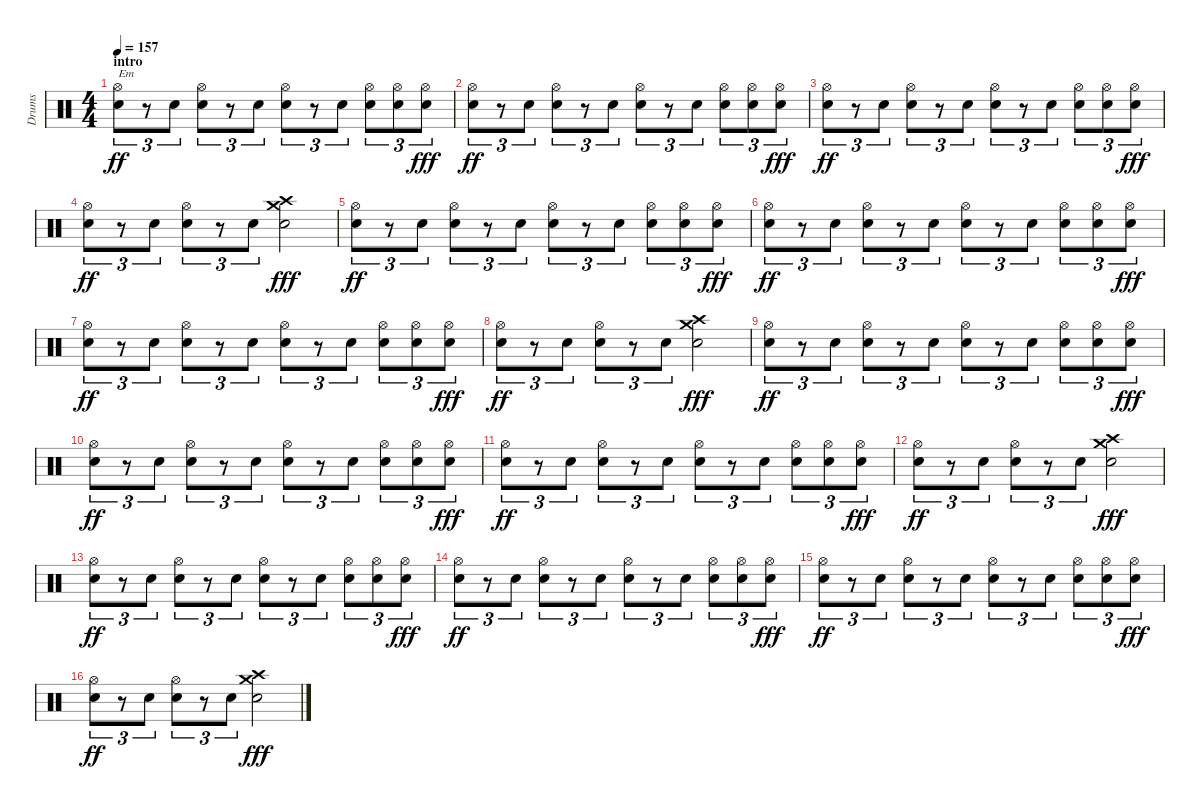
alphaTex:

\track ("Drums" "Drums") {instrument percussion}
\staff {score}
\articulation defaults
\ts (4 4)
\section ("" "intro")
\tempo 157
\clef neutral
\ks c
("Electric Snare (hit)" "Hi-Hat (open)").8{tu (3 2) txt "Em" dy ff} r.8{tu (3 2)} "Electric Snare (hit)".8{tu (3 2)} ("Electric Snare (hit)" "Hi-Hat (open)").8{tu (3 2)} r.8{tu (3 2)} "Electric Snare (hit)".8{tu (3 2)} ("Electric Snare (hit)" "Hi-Hat (open)").8{tu (3 2)} r.8{tu (3 2)} "Electric Snare (hit)".8{tu (3 2)} ("Electric Snare (hit)" "Hi-Hat (open)").8{tu (3 2)} ("Electric Snare (hit)" "Hi-Hat (open)").8{tu (3 2)} ("Electric Snare (hit)" "Hi-Hat (open)").8{tu (3 2) dy fff} |
("Electric Snare (hit)" "Hi-Hat (open)").8{tu (3 2) dy ff} r.8{tu (3 2)} "Electric Snare (hit)".8{tu (3 2)} ("Electric Snare (hit)" "Hi-Hat (open)").8{tu (3 2)} r.8{tu (3 2)} "Electric Snare (hit)".8{tu (3 2)} ("Electric Snare (hit)" "Hi-Hat (open)").8{tu (3 2)} r.8{tu (3 2)} "Electric Snare (hit)".8{tu (3 2)} ("Electric Snare (hit)" "Hi-Hat (open)").8{tu (3 2)} ("Electric Snare (hit)" "Hi-Hat (open)").8{tu (3 2)} ("Electric Snare (hit)" "Hi-Hat (open)").8{tu (3 2) dy fff} |
("Electric Snare (hit)" "Hi-Hat (open)").8{tu (3 2) dy ff} r.8{tu (3 2)} "Electric Snare (hit)".8{tu (3 2)} ("Electric Snare (hit)" "Hi-Hat (open)").8{tu (3 2)} r.8{tu (3 2)} "Electric Snare (hit)".8{tu (3 2)} ("Electric Snare (hit)" "Hi-Hat (open)").8{tu (3 2)} r.8{tu (3 2)} "Electric Snare (hit)".8{tu (3 2)} ("Electric Snare (hit)" "Hi-Hat (open)").8{tu (3 2)} ("Electric Snare (hit)" "Hi-Hat (open)").8{tu (3 2)} ("Electric Snare (hit)" "Hi-Hat (open)").8{tu (3 2) dy fff} |
("Electric Snare (hit)" "Hi-Hat (open)").8{tu (3 2) dy ff} r.8{tu (3 2)} "Electric Snare (hit)".8{tu (3 2)} ("Electric Snare (hit)" "Hi-Hat (open)").8{tu (3 2)} r.8{tu (3 2)} "Electric Snare (hit)".8{tu (3 2)} ("Electric Snare (hit)" "Crash medium (hit)" "Crash high (hit)").2{dy fff} |
("Electric Snare (hit)" "Hi-Hat (open)").8{tu (3 2) dy ff} r.8{tu (3 2)} "Electric Snare (hit)".8{tu (3 2)} ("Electric Snare (hit)" "Hi-Hat (open)").8{tu (3 2)} r.8{tu (3 2)} "Electric Snare (hit)".8{tu (3 2)} ("Electric Snare (hit)" "Hi-Hat (open)").8{tu (3 2)} r.8{tu (3 2)} "Electric Snare (hit)".8{tu (3 2)} ("Electric Snare (hit)" "Hi-Hat (open)").8{tu (3 2)} ("Electric Snare (hit)" "Hi-Hat (open)").8{tu (3 2)} ("Electric Snare (hit)" "Hi-Hat (open)").8{tu (3 2) dy fff} |
("Electric Snare (hit)" "Hi-Hat (open)").8{tu (3 2) dy ff} r.8{tu (3 2)} "Electric Snare (hit)".8{tu (3 2)} ("Electric Snare (hit)" "Hi-Hat (open)").8{tu (3 2)} r.8{tu (3 2)} "Electric Snare (hit)".8{tu (3 2)} ("Electric Snare (hit)" "Hi-Hat (open)").8{tu (3 2)} r.8{tu (3 2)} "Electric Snare (hit)".8{tu (3 2)} ("Electric Snare (hit)" "Hi-Hat (open)").8{tu (3 2)} ("Electric Snare (hit)" "Hi-Hat (open)").8{tu (3 2)} ("Electric Snare (hit)" "Hi-Hat (open)").8{tu (3 2) dy fff} |
("Electric Snare (hit)" "Hi-Hat (open)").8{tu (3 2) dy ff} r.8{tu (3 2)} "Electric Snare (hit)".8{tu (3 2)} ("Electric Snare (hit)" "Hi-Hat (open)").8{tu (3 2)} r.8{tu (3 2)} "Electric Snare (hit)".8{tu (3 2)} ("Electric Snare (hit)" "Hi-Hat (open)").8{tu (3 2)} r.8{tu (3 2)} "Electric Snare (hit)".8{tu (3 2)} ("Electric Snare (hit)" "Hi-Hat (open)").8{tu (3 2)} ("Electric Snare (hit)" "Hi-Hat (open)").8{tu (3 2)} ("Electric Snare (hit)" "Hi-Hat (open)").8{tu (3 2) dy fff} |
("Electric Snare (hit)" "Hi-Hat (open)").8{tu (3 2) dy ff} r.8{tu (3 2)} "Electric Snare (hit)".8{tu (3 2)} ("Electric Snare (hit)" "Hi-Hat (open)").8{tu (3 2)} r.8{tu (3 2)} "Electric Snare (hit)".8{tu (3 2)} ("Electric Snare (hit)" "Crash medium (hit)" "Crash high (hit)").2{dy fff} |
("Electric Snare (hit)" "Hi-Hat (open)").8{tu (3 2) dy ff} r.8{tu (3 2)} "Electric Snare (hit)".8{tu (3 2)} ("Electric Snare (hit)" "Hi-Hat (open)").8{tu (3 2)} r.8{tu (3 2)} "Electric Snare (hit)".8{tu (3 2)} ("Electric Snare (hit)" "Hi-Hat (open)").8{tu (3 2)} r.8{tu (3 2)} "Electric Snare (hit)".8{tu (3 2)} ("Electric Snare (hit)" "Hi-Hat (open)").8{tu (3 2)} ("Electric Snare (hit)" "Hi-Hat (open)").8{tu (3 2)} ("Electric Snare (hit)" "Hi-Hat (open)").8{tu (3 2) dy fff} |
("Electric Snare (hit)" "Hi-Hat (open)").8{tu (3 2) dy ff} r.8{tu (3 2)} "Electric Snare (hit)".8{tu (3 2)} ("Electric Snare (hit)" "Hi-Hat (open)").8{tu (3 2)} r.8{tu (3 2)} "Electric Snare (hit)".8{tu (3 2)} ("Electric Snare (hit)" "Hi-Hat (open)").8{tu (3 2)} r.8{tu (3 2)} "Electric Snare (hit)".8{tu (3 2)} ("Electric Snare (hit)" "Hi-Hat (open)").8{tu (3 2)} ("Electric Snare (hit)" "Hi-Hat (open)").8{tu (3 2)} ("Electric Snare (hit)" "Hi-Hat (open)").8{tu (3 2) dy fff} |
("Electric Snare (hit)" "Hi-Hat (open)").8{tu (3 2) dy ff} r.8{tu (3 2)} "Electric Snare (hit)".8{tu (3 2)} ("Electric Snare (hit)" "Hi-Hat (open)").8{tu (3 2)} r.8{tu (3 2)} "Electric Snare (hit)".8{tu (3 2)} ("Electric Snare (hit)" "Hi-Hat (open)").8{tu (3 2)} r.8{tu (3 2)} "Electric Snare (hit)".8{tu (3 2)} ("Electric Snare (hit)" "Hi-Hat (open)").8{tu (3 2)} ("Electric Snare (hit)" "Hi-Hat (open)").8{tu (3 2)} ("Electric Snare (hit)" "Hi-Hat (open)").8{tu (3 2) dy fff} |
("Electric Snare (hit)" "Hi-Hat (open)").8{tu (3 2) dy ff} r.8{tu (3 2)} "Electric Snare (hit)".8{tu (3 2)} ("Electric Snare (hit)" "Hi-Hat (open)").8{tu (3 2)} r.8{tu (3 2)} "Electric Snare (hit)".8{tu (3 2)} ("Electric Snare (hit)" "Crash medium (hit)" "Crash high (hit)").2{dy fff} |
("Electric Snare (hit)" "Hi-Hat (open)").8{tu (3 2) dy ff} r.8{tu (3 2)} "Electric Snare (hit)".8{tu (3 2)} ("Electric Snare (hit)" "Hi-Hat (open)").8{tu (3 2)} r.8{tu (3 2)} "Electric Snare (hit)".8{tu (3 2)} ("Electric Snare (hit)" "Hi-Hat (open)").8{tu (3 2)} r.8{tu (3 2)} "Electric Snare (hit)".8{tu (3 2)} ("Electric Snare (hit)" "Hi-Hat (open)").8{tu (3 2)} ("Electric Snare (hit)" "Hi-Hat (open)").8{tu (3 2)} ("Electric Snare (hit)" "Hi-Hat (open)").8{tu (3 2) dy fff} |
("Electric Snare (hit)" "Hi-Hat (open)").8{tu (3 2) dy ff} r.8{tu (3 2)} "Electric Snare (hit)".8{tu (3 2)} ("Electric Snare (hit)" "Hi-Hat (open)").8{tu (3 2)} r.8{tu (3 2)} "Electric Snare (hit)".8{tu (3 2)} ("Electric Snare (hit)" "Hi-Hat (open)").8{tu (3 2)} r.8{tu (3 2)} "Electric Snare (hit)".8{tu (3 2)} ("Electric Snare (hit)" "Hi-Hat (open)").8{tu (3 2)} ("Electric Snare (hit)" "Hi-Hat (open)").8{tu (3 2)} ("Electric Snare (hit)" "Hi-Hat (open)").8{tu (3 2) dy fff} |
("Electric Snare (hit)" "Hi-Hat (open)").8{tu (3 2) dy ff} r.8{tu (3 2)} "Electric Snare (hit)".8{tu (3 2)} ("Electric Snare (hit)" "Hi-Hat (open)").8{tu (3 2)} r.8{tu (3 2)} "Electric Snare (hit)".8{tu (3 2)} ("Electric Snare (hit)" "Hi-Hat (open)").8{tu (3 2)} r.8{tu (3 2)} "Electric Snare (hit)".8{tu (3 2)} ("Electric Snare (hit)" "Hi-Hat (open)").8{tu (3 2)} ("Electric Snare (hit)" "Hi-Hat (open)").8{tu (3 2)} ("Electric Snare (hit)" "Hi-Hat (open)").8{tu (3 2) dy fff} |
("Electric Snare (hit)" "Hi-Hat (open)").8{tu (3 2) dy ff} r.8{tu (3 2)} "Electric Snare (hit)".8{tu (3 2)} ("Electric Snare (hit)" "Hi-Hat (open)").8{tu (3 2)} r.8{tu (3 2)} "Electric Snare (hit)".8{tu (3 2)} ("Electric Snare (hit)" "Crash medium (hit)" "Crash high (hit)").2{dy fff}
